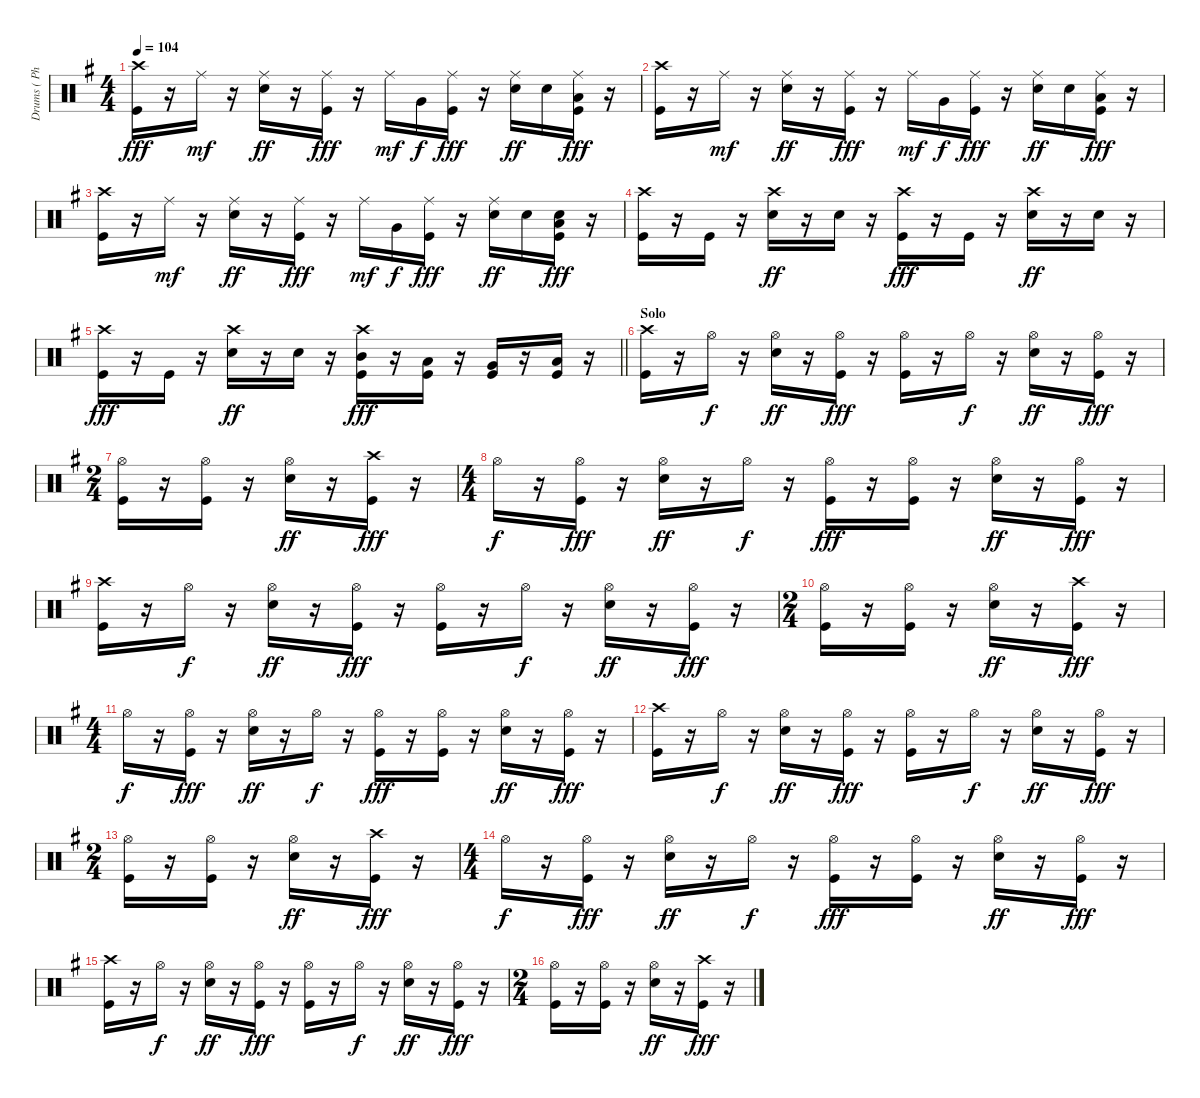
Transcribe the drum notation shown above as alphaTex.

\track ("Drums ( Phillip Selway)" "Drums ( Ph") {instrument percussion}
\staff {score}
\articulation defaults
\ts (4 4)
\tempo 104
\clef neutral
\ks eminor
("Crash high (hit)" "Kick (hit)").16{dy fff} r.16 "Ride (middle)".16{dy mf} r.16 ("Ride (middle)" "Electric Snare (hit)").16{dy ff} r.16 ("Ride (middle)" "Kick (hit)").16{dy fff} r.16 "Ride (middle)".16{dy mf} "Very Low Tom (hit)".16{dy f} ("Ride (middle)" "Kick (hit)").16{dy fff} r.16 ("Ride (middle)" "Electric Snare (hit)").16{dy ff} "Electric Snare (hit)".16 ("Ride (middle)" "Low Floor Tom (hit)" "Kick (hit)").16{dy fff} r.16 |
("Crash high (hit)" "Kick (hit)").16 r.16 "Ride (middle)".16{dy mf} r.16 ("Ride (middle)" "Electric Snare (hit)").16{dy ff} r.16 ("Ride (middle)" "Kick (hit)").16{dy fff} r.16 "Ride (middle)".16{dy mf} "Very Low Tom (hit)".16{dy f} ("Ride (middle)" "Kick (hit)").16{dy fff} r.16 ("Ride (middle)" "Electric Snare (hit)").16{dy ff} "Electric Snare (hit)".16 ("Ride (middle)" "Low Floor Tom (hit)" "Kick (hit)").16{dy fff} r.16 |
("Crash high (hit)" "Kick (hit)").16 r.16 "Ride (middle)".16{dy mf} r.16 ("Ride (middle)" "Electric Snare (hit)").16{dy ff} r.16 ("Ride (middle)" "Kick (hit)").16{dy fff} r.16 "Ride (middle)".16{dy mf} "Very Low Tom (hit)".16{dy f} ("Ride (middle)" "Kick (hit)").16{dy fff} r.16 ("Ride (middle)" "Electric Snare (hit)").16{dy ff} "Electric Snare (hit)".16 ("Snare (hit)" "Low Floor Tom (hit)" "Kick (hit)").16{dy fff} r.16 |
("Crash high (hit)" "Kick (hit)").16 r.16 "Kick (hit)".16 r.16 ("Crash high (hit)" "Electric Snare (hit)").16{dy ff} r.16 "Electric Snare (hit)".16 r.16 ("Crash high (hit)" "Kick (hit)").16{dy fff} r.16 "Kick (hit)".16 r.16 ("Crash high (hit)" "Electric Snare (hit)").16{dy ff} r.16 "Electric Snare (hit)".16 r.16 |
\barLineRight lightlight
("Crash high (hit)" "Kick (hit)").16{dy fff} r.16 "Kick (hit)".16 r.16 ("Crash high (hit)" "Electric Snare (hit)").16{dy ff} r.16 "Electric Snare (hit)".16 r.16 ("Crash high (hit)" "Mid Tom (hit)" "Kick (hit)").16{dy fff} r.16 ("Low Tom (hit)" "Kick (hit)").16 r.16 ("Very Low Tom (hit)" "Kick (hit)").16 r.16 ("Low Floor Tom (hit)" "Kick (hit)").16 r.16 |
\section ("" "Solo")
("Crash high (hit)" "Kick (hit)").16 r.16 "Hi-Hat (open)".16{dy f} r.16 ("Hi-Hat (open)" "Electric Snare (hit)").16{dy ff} r.16 ("Hi-Hat (open)" "Kick (hit)").16{dy fff} r.16 ("Hi-Hat (open)" "Kick (hit)").16 r.16 "Hi-Hat (open)".16{dy f} r.16 ("Hi-Hat (open)" "Electric Snare (hit)").16{dy ff} r.16 ("Hi-Hat (open)" "Kick (hit)").16{dy fff} r.16 |
\ts (2 4)
("Hi-Hat (open)" "Kick (hit)").16 r.16 ("Hi-Hat (open)" "Kick (hit)").16 r.16 ("Hi-Hat (open)" "Electric Snare (hit)").16{dy ff} r.16 ("Crash high (hit)" "Kick (hit)").16{dy fff} r.16 |
\ts (4 4)
"Hi-Hat (open)".16{dy f} r.16 ("Hi-Hat (open)" "Kick (hit)").16{dy fff} r.16 ("Hi-Hat (open)" "Electric Snare (hit)").16{dy ff} r.16 "Hi-Hat (open)".16{dy f} r.16 ("Hi-Hat (open)" "Kick (hit)").16{dy fff} r.16 ("Hi-Hat (open)" "Kick (hit)").16 r.16 ("Hi-Hat (open)" "Electric Snare (hit)").16{dy ff} r.16 ("Hi-Hat (open)" "Kick (hit)").16{dy fff} r.16 |
("Crash high (hit)" "Kick (hit)").16 r.16 "Hi-Hat (open)".16{dy f} r.16 ("Hi-Hat (open)" "Electric Snare (hit)").16{dy ff} r.16 ("Hi-Hat (open)" "Kick (hit)").16{dy fff} r.16 ("Hi-Hat (open)" "Kick (hit)").16 r.16 "Hi-Hat (open)".16{dy f} r.16 ("Hi-Hat (open)" "Electric Snare (hit)").16{dy ff} r.16 ("Hi-Hat (open)" "Kick (hit)").16{dy fff} r.16 |
\ts (2 4)
("Hi-Hat (open)" "Kick (hit)").16 r.16 ("Hi-Hat (open)" "Kick (hit)").16 r.16 ("Hi-Hat (open)" "Electric Snare (hit)").16{dy ff} r.16 ("Crash high (hit)" "Kick (hit)").16{dy fff} r.16 |
\ts (4 4)
"Hi-Hat (open)".16{dy f} r.16 ("Hi-Hat (open)" "Kick (hit)").16{dy fff} r.16 ("Hi-Hat (open)" "Electric Snare (hit)").16{dy ff} r.16 "Hi-Hat (open)".16{dy f} r.16 ("Hi-Hat (open)" "Kick (hit)").16{dy fff} r.16 ("Hi-Hat (open)" "Kick (hit)").16 r.16 ("Hi-Hat (open)" "Electric Snare (hit)").16{dy ff} r.16 ("Hi-Hat (open)" "Kick (hit)").16{dy fff} r.16 |
("Crash high (hit)" "Kick (hit)").16 r.16 "Hi-Hat (open)".16{dy f} r.16 ("Hi-Hat (open)" "Electric Snare (hit)").16{dy ff} r.16 ("Hi-Hat (open)" "Kick (hit)").16{dy fff} r.16 ("Hi-Hat (open)" "Kick (hit)").16 r.16 "Hi-Hat (open)".16{dy f} r.16 ("Hi-Hat (open)" "Electric Snare (hit)").16{dy ff} r.16 ("Hi-Hat (open)" "Kick (hit)").16{dy fff} r.16 |
\ts (2 4)
("Hi-Hat (open)" "Kick (hit)").16 r.16 ("Hi-Hat (open)" "Kick (hit)").16 r.16 ("Hi-Hat (open)" "Electric Snare (hit)").16{dy ff} r.16 ("Crash high (hit)" "Kick (hit)").16{dy fff} r.16 |
\ts (4 4)
"Hi-Hat (open)".16{dy f} r.16 ("Hi-Hat (open)" "Kick (hit)").16{dy fff} r.16 ("Hi-Hat (open)" "Electric Snare (hit)").16{dy ff} r.16 "Hi-Hat (open)".16{dy f} r.16 ("Hi-Hat (open)" "Kick (hit)").16{dy fff} r.16 ("Hi-Hat (open)" "Kick (hit)").16 r.16 ("Hi-Hat (open)" "Electric Snare (hit)").16{dy ff} r.16 ("Hi-Hat (open)" "Kick (hit)").16{dy fff} r.16 |
("Crash high (hit)" "Kick (hit)").16 r.16 "Hi-Hat (open)".16{dy f} r.16 ("Hi-Hat (open)" "Electric Snare (hit)").16{dy ff} r.16 ("Hi-Hat (open)" "Kick (hit)").16{dy fff} r.16 ("Hi-Hat (open)" "Kick (hit)").16 r.16 "Hi-Hat (open)".16{dy f} r.16 ("Hi-Hat (open)" "Electric Snare (hit)").16{dy ff} r.16 ("Hi-Hat (open)" "Kick (hit)").16{dy fff} r.16 |
\ts (2 4)
("Hi-Hat (open)" "Kick (hit)").16 r.16 ("Hi-Hat (open)" "Kick (hit)").16 r.16 ("Hi-Hat (open)" "Electric Snare (hit)").16{dy ff} r.16 ("Crash high (hit)" "Kick (hit)").16{dy fff} r.16
